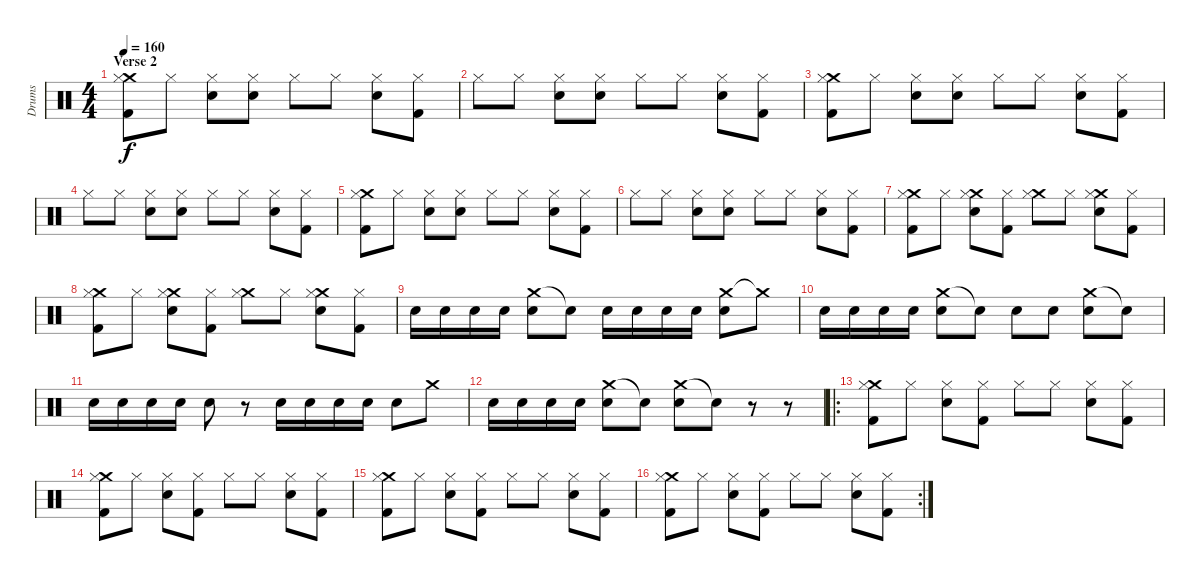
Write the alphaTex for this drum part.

\track ("Drums" "Drums") {instrument percussion}
\staff {score}
\articulation defaults
\ts (4 4)
\section ("" "Verse 2")
\tempo 160
\clef neutral
\ks c
("Crash medium (hit)" "Hi-Hat (closed)" "Kick (hit) 2").8{dy f} "Hi-Hat (closed)".8 ("Hi-Hat (closed)" "Snare (hit) 2").8 ("Hi-Hat (closed)" "Snare (hit) 2").8 "Hi-Hat (closed)".8 "Hi-Hat (closed)".8 ("Hi-Hat (closed)" "Snare (hit) 2").8 ("Hi-Hat (closed)" "Kick (hit) 2").8 |
"Hi-Hat (closed)".8 "Hi-Hat (closed)".8 ("Hi-Hat (closed)" "Snare (hit) 2").8 ("Hi-Hat (closed)" "Snare (hit) 2").8 "Hi-Hat (closed)".8 "Hi-Hat (closed)".8 ("Hi-Hat (closed)" "Snare (hit) 2").8 ("Hi-Hat (closed)" "Kick (hit) 2").8 |
("Crash medium (hit)" "Hi-Hat (closed)" "Kick (hit) 2").8 "Hi-Hat (closed)".8 ("Hi-Hat (closed)" "Snare (hit) 2").8 ("Hi-Hat (closed)" "Snare (hit) 2").8 "Hi-Hat (closed)".8 "Hi-Hat (closed)".8 ("Hi-Hat (closed)" "Snare (hit) 2").8 ("Hi-Hat (closed)" "Kick (hit) 2").8 |
"Hi-Hat (closed)".8 "Hi-Hat (closed)".8 ("Hi-Hat (closed)" "Snare (hit) 2").8 ("Hi-Hat (closed)" "Snare (hit) 2").8 "Hi-Hat (closed)".8 "Hi-Hat (closed)".8 ("Hi-Hat (closed)" "Snare (hit) 2").8 ("Hi-Hat (closed)" "Kick (hit) 2").8 |
("Crash medium (hit)" "Hi-Hat (closed)" "Kick (hit) 2").8 "Hi-Hat (closed)".8 ("Hi-Hat (closed)" "Snare (hit) 2").8 ("Hi-Hat (closed)" "Snare (hit) 2").8 "Hi-Hat (closed)".8 "Hi-Hat (closed)".8 ("Hi-Hat (closed)" "Snare (hit) 2").8 ("Hi-Hat (closed)" "Kick (hit) 2").8 |
"Hi-Hat (closed)".8 "Hi-Hat (closed)".8 ("Hi-Hat (closed)" "Snare (hit) 2").8 ("Hi-Hat (closed)" "Snare (hit) 2").8 "Hi-Hat (closed)".8 "Hi-Hat (closed)".8 ("Hi-Hat (closed)" "Snare (hit) 2").8 ("Hi-Hat (closed)" "Kick (hit) 2").8 |
("Crash medium (hit)" "Hi-Hat (closed)" "Kick (hit) 2").8 "Hi-Hat (closed)".8 ("Crash medium (hit)" "Hi-Hat (closed)" "Snare (hit) 2").8 ("Hi-Hat (closed)" "Kick (hit) 2").8 ("Crash medium (hit)" "Hi-Hat (closed)").8 "Hi-Hat (closed)".8 ("Crash medium (hit)" "Hi-Hat (closed)" "Snare (hit) 2").8 ("Hi-Hat (closed)" "Kick (hit) 2").8 |
("Crash medium (hit)" "Hi-Hat (closed)" "Kick (hit) 2").8 "Hi-Hat (closed)".8 ("Crash medium (hit)" "Hi-Hat (closed)" "Snare (hit) 2").8 ("Hi-Hat (closed)" "Kick (hit) 2").8 ("Crash medium (hit)" "Hi-Hat (closed)").8 "Hi-Hat (closed)".8 ("Crash medium (hit)" "Hi-Hat (closed)" "Snare (hit) 2").8 ("Hi-Hat (closed)" "Kick (hit) 2").8 |
"Snare (hit) 2".16 "Snare (hit) 2".16 "Snare (hit) 2".16 "Snare (hit) 2".16 ("Crash medium (hit)" "Snare (hit) 2").8 "Snare (hit)"{t}.8 "Snare (hit) 2".16 "Snare (hit) 2".16 "Snare (hit) 2".16 "Snare (hit) 2".16 ("Crash medium (hit)" "Snare (hit) 2").8 "Crash medium (hit)"{t}.8 |
"Snare (hit) 2".16 "Snare (hit) 2".16 "Snare (hit) 2".16 "Snare (hit) 2".16 ("Crash medium (hit)" "Snare (hit) 2").8 "Snare (hit)"{t}.8 "Snare (hit) 2".8 "Snare (hit) 2".8 ("Crash medium (hit)" "Snare (hit) 2").8 "Snare (hit)"{t}.8 |
"Snare (hit) 2".16 "Snare (hit) 2".16 "Snare (hit) 2".16 "Snare (hit) 2".16 "Snare (hit) 2".8 r.8 "Snare (hit) 2".16 "Snare (hit) 2".16 "Snare (hit) 2".16 "Snare (hit) 2".16 "Snare (hit) 2".8 "Crash medium (hit)".8 |
"Snare (hit) 2".16 "Snare (hit) 2".16 "Snare (hit) 2".16 "Snare (hit) 2".16 ("Crash medium (hit)" "Snare (hit) 2").8 "Snare (hit)"{t}.8 ("Crash medium (hit)" "Snare (hit) 2").8 "Snare (hit)"{t}.8 r.8 r.8 |
\ro
("Crash medium (hit)" "Hi-Hat (closed)" "Kick (hit) 2").8 "Hi-Hat (closed)".8 ("Hi-Hat (closed)" "Snare (hit) 2").8 ("Hi-Hat (closed)" "Kick (hit) 2").8 "Hi-Hat (closed)".8 "Hi-Hat (closed)".8 ("Hi-Hat (closed)" "Snare (hit) 2").8 ("Hi-Hat (closed)" "Kick (hit) 2").8 |
("Crash medium (hit)" "Hi-Hat (closed)" "Kick (hit) 2").8 "Hi-Hat (closed)".8 ("Hi-Hat (closed)" "Snare (hit) 2").8 ("Hi-Hat (closed)" "Kick (hit) 2").8 "Hi-Hat (closed)".8 "Hi-Hat (closed)".8 ("Hi-Hat (closed)" "Snare (hit) 2").8 ("Hi-Hat (closed)" "Kick (hit) 2").8 |
("Crash medium (hit)" "Hi-Hat (closed)" "Kick (hit) 2").8 "Hi-Hat (closed)".8 ("Hi-Hat (closed)" "Snare (hit) 2").8 ("Hi-Hat (closed)" "Kick (hit) 2").8 "Hi-Hat (closed)".8 "Hi-Hat (closed)".8 ("Hi-Hat (closed)" "Snare (hit) 2").8 ("Hi-Hat (closed)" "Kick (hit) 2").8 |
\rc 2
("Crash medium (hit)" "Hi-Hat (closed)" "Kick (hit) 2").8 "Hi-Hat (closed)".8 ("Hi-Hat (closed)" "Snare (hit) 2").8 ("Hi-Hat (closed)" "Kick (hit) 2").8 "Hi-Hat (closed)".8 "Hi-Hat (closed)".8 ("Hi-Hat (closed)" "Snare (hit) 2").8 ("Hi-Hat (closed)" "Kick (hit) 2").8
